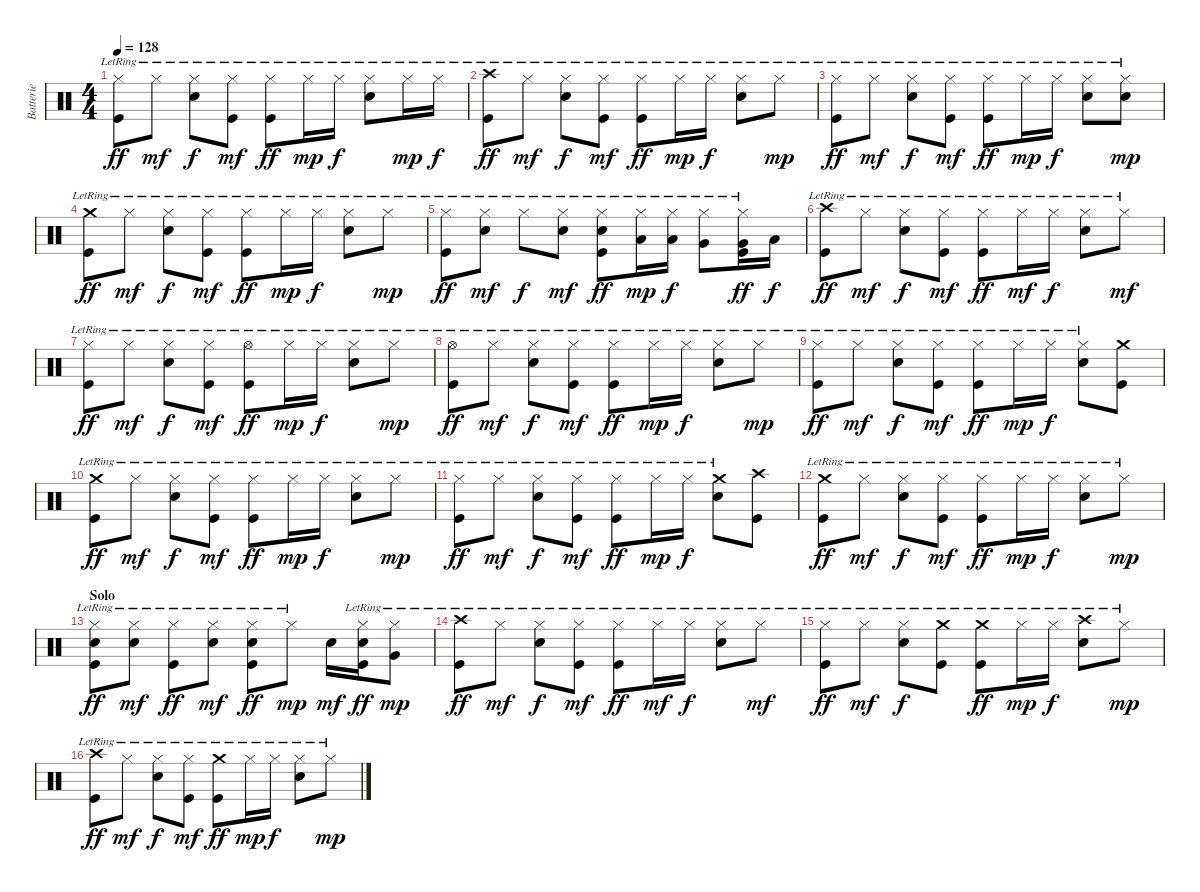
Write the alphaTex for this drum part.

\track ("Batterie" "Batterie") {instrument percussion}
\staff {score}
\articulation defaults
\ts (4 4)
\tempo 128
\clef neutral
\ks c
("Hi-Hat (closed)"{lr} "Kick (hit)"{lr}).8{dy ff} "Hi-Hat (closed)"{lr}.8{dy mf} ("Hi-Hat (closed)"{lr} "Snare (hit) 2"{lr}).8{dy f} ("Hi-Hat (closed)"{lr} "Kick (hit)"{lr}).8{dy mf} ("Hi-Hat (closed)"{lr} "Kick (hit)"{lr}).8{dy ff} "Hi-Hat (closed)"{lr}.16{dy mp} "Hi-Hat (closed)"{lr}.16{dy f} ("Hi-Hat (closed)"{lr} "Snare (hit) 2"{lr}).8 "Hi-Hat (closed)"{lr}.16{dy mp} "Hi-Hat (closed)"{lr}.16{dy f} |
("Crash high (hit)" "Kick (hit)"{lr}).8{dy ff} "Hi-Hat (closed)"{lr}.8{dy mf} ("Hi-Hat (closed)"{lr} "Snare (hit) 2"{lr}).8{dy f} ("Hi-Hat (closed)"{lr} "Kick (hit)"{lr}).8{dy mf} ("Hi-Hat (closed)"{lr} "Kick (hit)"{lr}).8{dy ff} "Hi-Hat (closed)"{lr}.16{dy mp} "Hi-Hat (closed)"{lr}.16{dy f} ("Hi-Hat (closed)"{lr} "Snare (hit) 2"{lr}).8 "Hi-Hat (closed)"{lr}.8{dy mp} |
("Hi-Hat (closed)"{lr} "Kick (hit)"{lr}).8{dy ff} "Hi-Hat (closed)"{lr}.8{dy mf} ("Hi-Hat (closed)"{lr} "Snare (hit) 2"{lr}).8{dy f} ("Hi-Hat (closed)"{lr} "Kick (hit)"{lr}).8{dy mf} ("Hi-Hat (closed)"{lr} "Kick (hit)"{lr}).8{dy ff} "Hi-Hat (closed)"{lr}.16{dy mp} "Hi-Hat (closed)"{lr}.16{dy f} ("Hi-Hat (closed)"{lr} "Snare (hit) 2"{lr}).8 ("Hi-Hat (closed)"{lr} "Snare (hit) 2").8{dy mp} |
("Crash medium (hit)" "Kick (hit)"{lr}).8{dy ff} "Hi-Hat (closed)"{lr}.8{dy mf} ("Hi-Hat (closed)"{lr} "Snare (hit) 2"{lr}).8{dy f} ("Hi-Hat (closed)"{lr} "Kick (hit)"{lr}).8{dy mf} ("Hi-Hat (closed)"{lr} "Kick (hit)"{lr}).8{dy ff} "Hi-Hat (closed)"{lr}.16{dy mp} "Hi-Hat (closed)"{lr}.16{dy f} ("Hi-Hat (closed)"{lr} "Snare (hit) 2"{lr}).8 "Hi-Hat (closed)"{lr}.8{dy mp} |
("Hi-Hat (closed)"{lr} "Kick (hit)"{lr}).8{dy ff} ("Hi-Hat (closed)"{lr} "Snare (hit) 2").8{dy mf} "Hi-Hat (closed)"{lr}.8{dy f} ("Hi-Hat (closed)"{lr} "Snare (hit) 2").8{dy mf} ("Hi-Hat (closed)"{lr} "Snare (hit) 2" "Kick (hit)"{lr}).8{dy ff} ("Low Tom (hit)" "Hi-Hat (closed)"{lr}).16{dy mp} ("Low Tom (hit)" "Hi-Hat (closed)"{lr}).16{dy f} ("Very Low Tom (hit)" "Hi-Hat (closed)"{lr}).8 ("Very Low Tom (hit)" "Hi-Hat (closed)"{lr} "Kick (hit)"{lr}).16{dy ff} "Low Floor Tom (hit)".16{dy f} |
("Crash high (hit)"{lr} "Kick (hit)"{lr}).8{dy ff} "Hi-Hat (closed)"{lr}.8{dy mf} ("Hi-Hat (closed)"{lr} "Snare (hit) 2"{lr}).8{dy f} ("Hi-Hat (closed)"{lr} "Kick (hit)"{lr}).8{dy mf} ("Hi-Hat (closed)"{lr} "Kick (hit)"{lr}).8{dy ff} "Hi-Hat (closed)"{lr}.16{dy mf} "Hi-Hat (closed)"{lr}.16{dy f} ("Hi-Hat (closed)"{lr} "Snare (hit) 2"{lr}).8 "Hi-Hat (closed)"{lr}.8{dy mf} |
("Hi-Hat (closed)"{lr} "Kick (hit)"{lr}).8{dy ff} "Hi-Hat (closed)"{lr}.8{dy mf} ("Hi-Hat (closed)"{lr} "Snare (hit) 2"{lr}).8{dy f} ("Hi-Hat (closed)"{lr} "Kick (hit)"{lr}).8{dy mf} ("Hi-Hat (open)"{lr} "Kick (hit)"{lr}).8{dy ff} "Hi-Hat (closed)"{lr}.16{dy mp} "Hi-Hat (closed)"{lr}.16{dy f} ("Hi-Hat (closed)"{lr} "Snare (hit) 2"{lr}).8 "Hi-Hat (closed)"{lr}.8{dy mp} |
("Hi-Hat (open)"{lr} "Kick (hit)"{lr}).8{dy ff} "Hi-Hat (closed)"{lr}.8{dy mf} ("Hi-Hat (closed)"{lr} "Snare (hit) 2"{lr}).8{dy f} ("Hi-Hat (closed)"{lr} "Kick (hit)"{lr}).8{dy mf} ("Hi-Hat (closed)"{lr} "Kick (hit)"{lr}).8{dy ff} "Hi-Hat (closed)"{lr}.16{dy mp} "Hi-Hat (closed)"{lr}.16{dy f} ("Hi-Hat (closed)"{lr} "Snare (hit) 2"{lr}).8 "Hi-Hat (closed)"{lr}.8{dy mp} |
("Hi-Hat (closed)"{lr} "Kick (hit)"{lr}).8{dy ff} "Hi-Hat (closed)"{lr}.8{dy mf} ("Hi-Hat (closed)"{lr} "Snare (hit) 2"{lr}).8{dy f} ("Hi-Hat (closed)"{lr} "Kick (hit)"{lr}).8{dy mf} ("Hi-Hat (closed)"{lr} "Kick (hit)"{lr}).8{dy ff} "Hi-Hat (closed)"{lr}.16{dy mp} "Hi-Hat (closed)"{lr}.16{dy f} ("Hi-Hat (closed)"{lr} "Snare (hit) 2"{lr}).8 ("Crash medium (hit)" "Kick (hit)").8 |
("Crash medium (hit)" "Kick (hit)"{lr}).8{dy ff} "Hi-Hat (closed)"{lr}.8{dy mf} ("Hi-Hat (closed)"{lr} "Snare (hit) 2"{lr}).8{dy f} ("Hi-Hat (closed)"{lr} "Kick (hit)"{lr}).8{dy mf} ("Hi-Hat (closed)"{lr} "Kick (hit)"{lr}).8{dy ff} "Hi-Hat (closed)"{lr}.16{dy mp} "Hi-Hat (closed)"{lr}.16{dy f} ("Hi-Hat (closed)"{lr} "Snare (hit) 2"{lr}).8 "Hi-Hat (closed)"{lr}.8{dy mp} |
("Hi-Hat (closed)"{lr} "Kick (hit)"{lr}).8{dy ff} "Hi-Hat (closed)"{lr}.8{dy mf} ("Hi-Hat (closed)"{lr} "Snare (hit) 2"{lr}).8{dy f} ("Hi-Hat (closed)"{lr} "Kick (hit)"{lr}).8{dy mf} ("Hi-Hat (closed)"{lr} "Kick (hit)"{lr}).8{dy ff} "Hi-Hat (closed)"{lr}.16{dy mp} "Hi-Hat (closed)"{lr}.16{dy f} ("Crash medium (hit)" "Snare (hit) 2"{lr}).8 ("Crash high (hit)" "Kick (hit)").8 |
("Crash medium (hit)" "Kick (hit)"{lr}).8{dy ff} "Hi-Hat (closed)"{lr}.8{dy mf} ("Hi-Hat (closed)"{lr} "Snare (hit) 2"{lr}).8{dy f} ("Hi-Hat (closed)"{lr} "Kick (hit)"{lr}).8{dy mf} ("Hi-Hat (closed)"{lr} "Kick (hit)"{lr}).8{dy ff} "Hi-Hat (closed)"{lr}.16{dy mp} "Hi-Hat (closed)"{lr}.16{dy f} ("Hi-Hat (closed)"{lr} "Snare (hit) 2"{lr}).8 "Hi-Hat (closed)"{lr}.8{dy mp} |
\section ("" "Solo")
("Hi-Hat (closed)"{lr} "Snare (hit) 2" "Kick (hit)"{lr}).8{dy ff} ("Hi-Hat (closed)"{lr} "Snare (hit) 2").8{dy mf} ("Hi-Hat (closed)"{lr} "Kick (hit)").8{dy ff} ("Hi-Hat (closed)"{lr} "Snare (hit) 2").8{dy mf} ("Hi-Hat (closed)"{lr} "Snare (hit) 2" "Kick (hit)"{lr}).8{dy ff} "Hi-Hat (closed)"{lr}.8{dy mp} "Snare (hit) 2".16{dy mf} ("Hi-Hat (closed)"{lr} "Snare (hit) 2" "Kick (hit)").16{dy ff} ("Very Low Tom (hit)" "Hi-Hat (closed)"{lr}).8{dy mp} |
("Crash high (hit)"{lr} "Kick (hit)"{lr}).8{dy ff} "Hi-Hat (closed)"{lr}.8{dy mf} ("Hi-Hat (closed)"{lr} "Snare (hit) 2"{lr}).8{dy f} ("Hi-Hat (closed)"{lr} "Kick (hit)"{lr}).8{dy mf} ("Hi-Hat (closed)"{lr} "Kick (hit)"{lr}).8{dy ff} "Hi-Hat (closed)"{lr}.16{dy mf} "Hi-Hat (closed)"{lr}.16{dy f} ("Hi-Hat (closed)"{lr} "Snare (hit) 2"{lr}).8 "Hi-Hat (closed)"{lr}.8{dy mf} |
("Hi-Hat (closed)"{lr} "Kick (hit)"{lr}).8{dy ff} "Hi-Hat (closed)"{lr}.8{dy mf} ("Hi-Hat (closed)"{lr} "Snare (hit) 2"{lr}).8{dy f} ("Crash medium (hit)" "Kick (hit)"{lr}).8 ("Crash medium (hit)" "Kick (hit)"{lr}).8{dy ff} "Hi-Hat (closed)"{lr}.16{dy mp} "Hi-Hat (closed)"{lr}.16{dy f} ("Crash high (hit)" "Snare (hit) 2"{lr}).8 "Hi-Hat (closed)"{lr}.8{dy mp} |
("Crash high (hit)" "Kick (hit)"{lr}).8{dy ff} "Hi-Hat (closed)"{lr}.8{dy mf} ("Hi-Hat (closed)"{lr} "Snare (hit) 2"{lr}).8{dy f} ("Hi-Hat (closed)"{lr} "Kick (hit)"{lr}).8{dy mf} ("Crash medium (hit)" "Kick (hit)"{lr}).8{dy ff} "Hi-Hat (closed)"{lr}.16{dy mp} "Hi-Hat (closed)"{lr}.16{dy f} ("Hi-Hat (closed)"{lr} "Snare (hit) 2"{lr}).8 "Hi-Hat (closed)"{lr}.8{dy mp}
